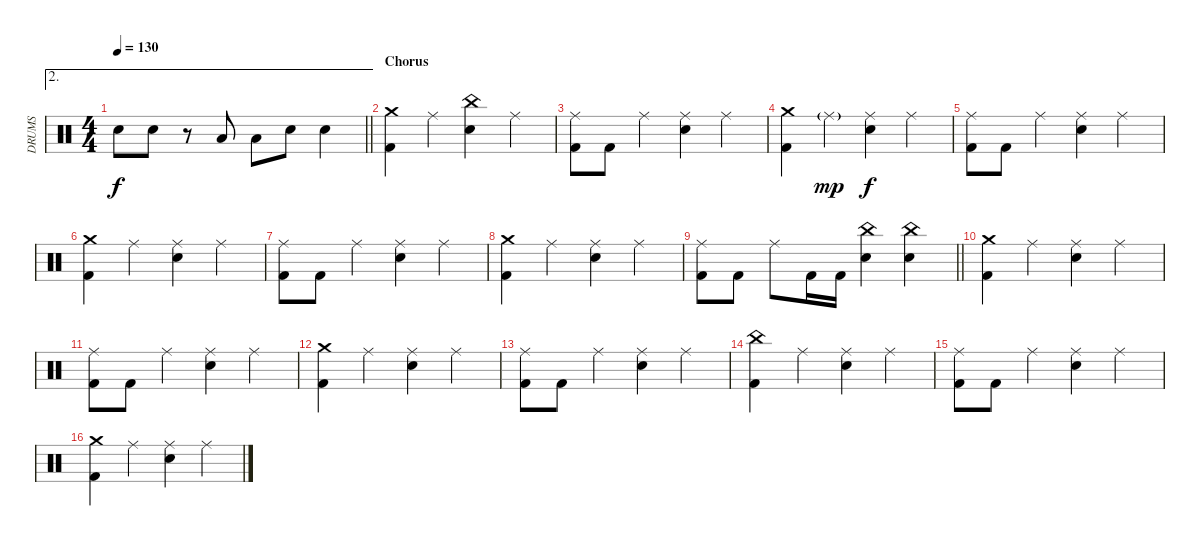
\track ("DRUMS" "DRUMS") {instrument percussion}
\staff {score}
\articulation defaults
\ae 2
\ts (4 4)
\tempo 130
\clef neutral
\barLineRight lightlight
\ks c "Snare (hit) 2".8{dy f} "Snare (hit) 2".8
r.8 "Low Tom (hit)".8 "Low Tom (hit)".8 "Snare (hit) 2".8 "Snare (hit) 2".4 |
\section ("" "Chorus")
("Crash medium (hit)" "Kick (hit) 2").4 "Ride (middle)".4 ("China (hit)" "Snare (hit) 2").4 "Ride (middle)".4 |
("Ride (middle)" "Kick (hit) 2").8 "Kick (hit) 2".8 "Ride (middle)".4 ("Ride (middle)" "Snare (hit) 2").4 "Ride (middle)".4 |
("Crash medium (hit)" "Kick (hit) 2").4 "Ride (middle)"{g}.4{dy mp} ("Ride (middle)" "Snare (hit) 2").4{dy f} "Ride (middle)".4 |
("Ride (middle)" "Kick (hit) 2").8 "Kick (hit) 2".8 "Ride (middle)".4 ("Ride (middle)" "Snare (hit) 2").4 "Ride (middle)".4 |
("Crash medium (hit)" "Kick (hit) 2").4 "Ride (middle)".4 ("Ride (middle)" "Snare (hit) 2").4 "Ride (middle)".4 |
("Ride (middle)" "Kick (hit) 2").8 "Kick (hit) 2".8 "Ride (middle)".4 ("Ride (middle)" "Snare (hit) 2").4 "Ride (middle)".4 |
("Crash medium (hit)" "Kick (hit) 2").4 "Ride (middle)".4 ("Ride (middle)" "Snare (hit) 2").4 "Ride (middle)".4 |
\barLineRight lightlight
("Ride (middle)" "Kick (hit) 2").8 "Kick (hit) 2".8 "Ride (middle)".8 "Kick (hit) 2".16 "Kick (hit) 2".16 ("China (hit)" "Snare (hit) 2").4 ("China (hit)" "Snare (hit) 2").4 |
("Crash medium (hit)" "Kick (hit) 2").4 "Ride (middle)".4 ("Ride (middle)" "Snare (hit) 2").4 "Ride (middle)".4 |
("Ride (middle)" "Kick (hit) 2").8 "Kick (hit) 2".8 "Ride (middle)".4 ("Ride (middle)" "Snare (hit) 2").4 "Ride (middle)".4 |
("Crash medium (hit)" "Kick (hit) 2").4 "Ride (middle)".4 ("Ride (middle)" "Snare (hit) 2").4 "Ride (middle)".4 |
("Ride (middle)" "Kick (hit) 2").8 "Kick (hit) 2".8 "Ride (middle)".4 ("Ride (middle)" "Snare (hit) 2").4 "Ride (middle)".4 |
("China (hit)" "Kick (hit) 2").4 "Ride (middle)".4 ("Ride (middle)" "Snare (hit) 2").4 "Ride (middle)".4 |
("Ride (middle)" "Kick (hit) 2").8 "Kick (hit) 2".8 "Ride (middle)".4 ("Ride (middle)" "Snare (hit) 2").4 "Ride (middle)".4 |
("Crash medium (hit)" "Kick (hit) 2").4 "Ride (middle)".4 ("Ride (middle)" "Snare (hit) 2").4 "Ride (middle)".4
